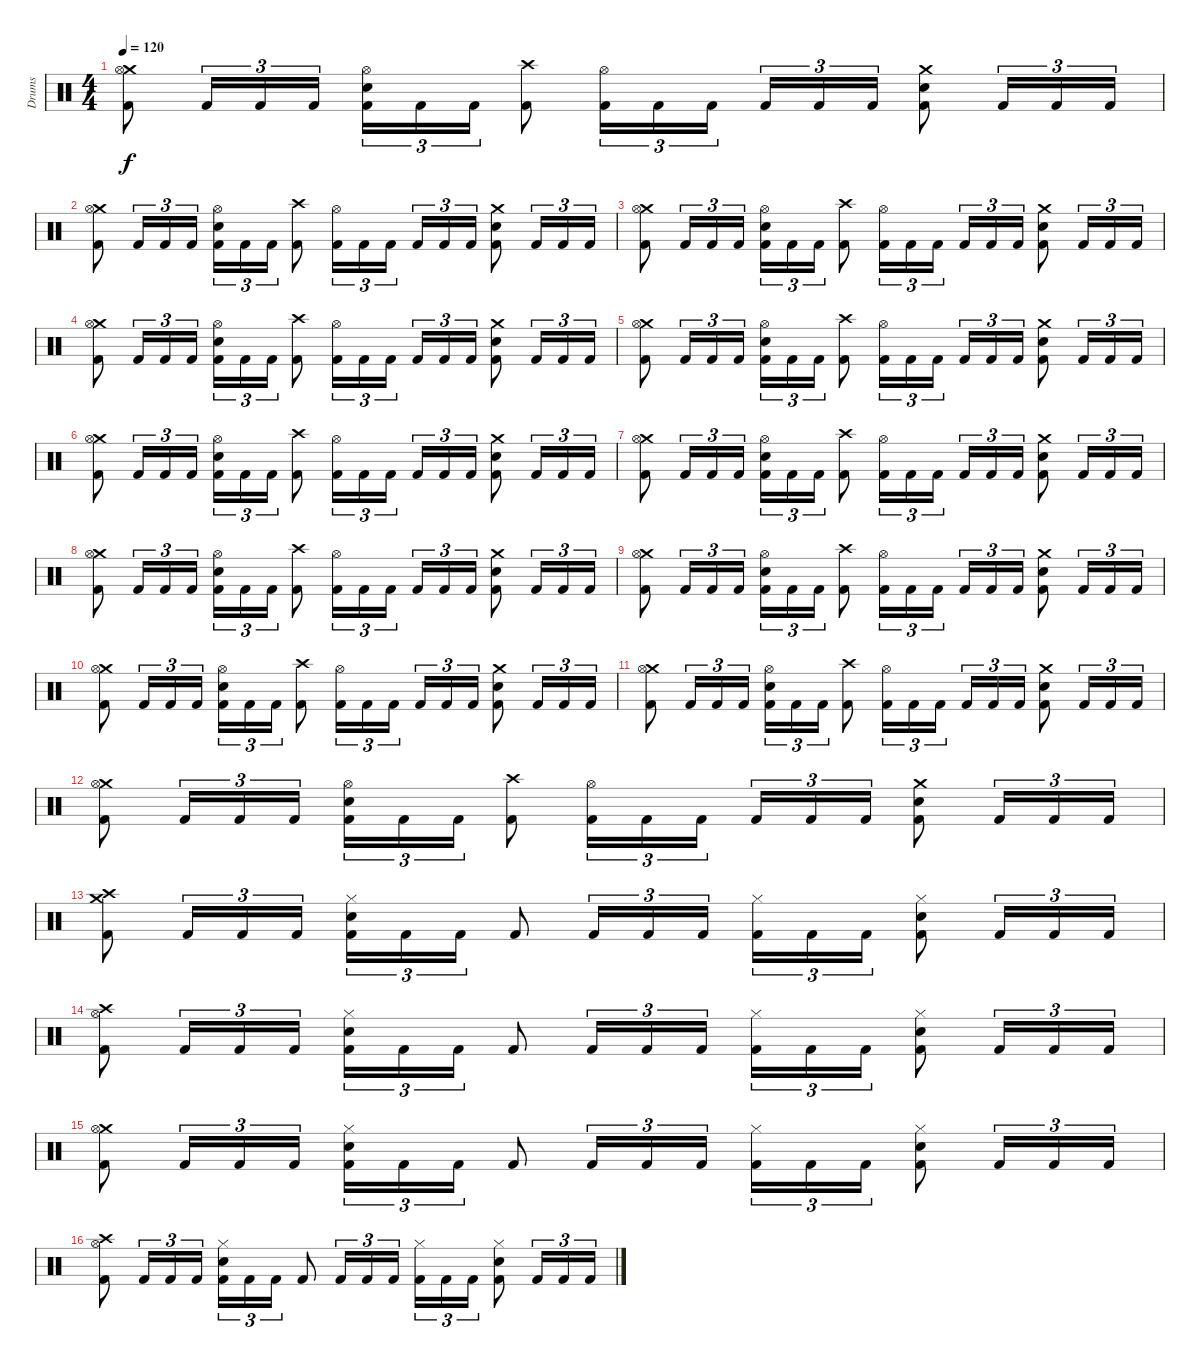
\track ("Drums" "Drums") {instrument percussion}
\staff {score}
\articulation defaults
\ts (4 4)
\tempo 120
\clef neutral
\ks c
("Crash medium (hit)" "Hi-Hat (open)" "Kick (hit) 2").8{dy f} "Kick (hit) 2".16{tu (3 2)} "Kick (hit) 2".16{tu (3 2)} "Kick (hit) 2".16{tu (3 2)} ("Hi-Hat (open)" "Electric Snare (hit)" "Kick (hit) 2").16{tu (3 2)} "Kick (hit) 2".16{tu (3 2)} "Kick (hit) 2".16{tu (3 2)} ("Crash high (hit)" "Kick (hit) 2").8 ("Hi-Hat (open)" "Kick (hit) 2").16{tu (3 2)} "Kick (hit) 2".16{tu (3 2)} "Kick (hit) 2".16{tu (3 2)} "Kick (hit) 2".16{tu (3 2)} "Kick (hit) 2".16{tu (3 2)} "Kick (hit) 2".16{tu (3 2)} ("Crash medium (hit)" "Electric Snare (hit)" "Kick (hit) 2").8 "Kick (hit) 2".16{tu (3 2)} "Kick (hit) 2".16{tu (3 2)} "Kick (hit) 2".16{tu (3 2)} |
("Crash medium (hit)" "Hi-Hat (open)" "Kick (hit) 2").8 "Kick (hit) 2".16{tu (3 2)} "Kick (hit) 2".16{tu (3 2)} "Kick (hit) 2".16{tu (3 2)} ("Hi-Hat (open)" "Electric Snare (hit)" "Kick (hit) 2").16{tu (3 2)} "Kick (hit) 2".16{tu (3 2)} "Kick (hit) 2".16{tu (3 2)} ("Crash high (hit)" "Kick (hit) 2").8 ("Hi-Hat (open)" "Kick (hit) 2").16{tu (3 2)} "Kick (hit) 2".16{tu (3 2)} "Kick (hit) 2".16{tu (3 2)} "Kick (hit) 2".16{tu (3 2)} "Kick (hit) 2".16{tu (3 2)} "Kick (hit) 2".16{tu (3 2)} ("Crash medium (hit)" "Electric Snare (hit)" "Kick (hit) 2").8 "Kick (hit) 2".16{tu (3 2)} "Kick (hit) 2".16{tu (3 2)} "Kick (hit) 2".16{tu (3 2)} |
("Crash medium (hit)" "Hi-Hat (open)" "Kick (hit) 2").8 "Kick (hit) 2".16{tu (3 2)} "Kick (hit) 2".16{tu (3 2)} "Kick (hit) 2".16{tu (3 2)} ("Hi-Hat (open)" "Electric Snare (hit)" "Kick (hit) 2").16{tu (3 2)} "Kick (hit) 2".16{tu (3 2)} "Kick (hit) 2".16{tu (3 2)} ("Crash high (hit)" "Kick (hit) 2").8 ("Hi-Hat (open)" "Kick (hit) 2").16{tu (3 2)} "Kick (hit) 2".16{tu (3 2)} "Kick (hit) 2".16{tu (3 2)} "Kick (hit) 2".16{tu (3 2)} "Kick (hit) 2".16{tu (3 2)} "Kick (hit) 2".16{tu (3 2)} ("Crash medium (hit)" "Electric Snare (hit)" "Kick (hit) 2").8 "Kick (hit) 2".16{tu (3 2)} "Kick (hit) 2".16{tu (3 2)} "Kick (hit) 2".16{tu (3 2)} |
("Crash medium (hit)" "Hi-Hat (open)" "Kick (hit) 2").8 "Kick (hit) 2".16{tu (3 2)} "Kick (hit) 2".16{tu (3 2)} "Kick (hit) 2".16{tu (3 2)} ("Hi-Hat (open)" "Electric Snare (hit)" "Kick (hit) 2").16{tu (3 2)} "Kick (hit) 2".16{tu (3 2)} "Kick (hit) 2".16{tu (3 2)} ("Crash high (hit)" "Kick (hit) 2").8 ("Hi-Hat (open)" "Kick (hit) 2").16{tu (3 2)} "Kick (hit) 2".16{tu (3 2)} "Kick (hit) 2".16{tu (3 2)} "Kick (hit) 2".16{tu (3 2)} "Kick (hit) 2".16{tu (3 2)} "Kick (hit) 2".16{tu (3 2)} ("Crash medium (hit)" "Electric Snare (hit)" "Kick (hit) 2").8 "Kick (hit) 2".16{tu (3 2)} "Kick (hit) 2".16{tu (3 2)} "Kick (hit) 2".16{tu (3 2)} |
("Crash medium (hit)" "Hi-Hat (open)" "Kick (hit) 2").8 "Kick (hit) 2".16{tu (3 2)} "Kick (hit) 2".16{tu (3 2)} "Kick (hit) 2".16{tu (3 2)} ("Hi-Hat (open)" "Electric Snare (hit)" "Kick (hit) 2").16{tu (3 2)} "Kick (hit) 2".16{tu (3 2)} "Kick (hit) 2".16{tu (3 2)} ("Crash high (hit)" "Kick (hit) 2").8 ("Hi-Hat (open)" "Kick (hit) 2").16{tu (3 2)} "Kick (hit) 2".16{tu (3 2)} "Kick (hit) 2".16{tu (3 2)} "Kick (hit) 2".16{tu (3 2)} "Kick (hit) 2".16{tu (3 2)} "Kick (hit) 2".16{tu (3 2)} ("Crash medium (hit)" "Electric Snare (hit)" "Kick (hit) 2").8 "Kick (hit) 2".16{tu (3 2)} "Kick (hit) 2".16{tu (3 2)} "Kick (hit) 2".16{tu (3 2)} |
("Crash medium (hit)" "Hi-Hat (open)" "Kick (hit) 2").8 "Kick (hit) 2".16{tu (3 2)} "Kick (hit) 2".16{tu (3 2)} "Kick (hit) 2".16{tu (3 2)} ("Hi-Hat (open)" "Electric Snare (hit)" "Kick (hit) 2").16{tu (3 2)} "Kick (hit) 2".16{tu (3 2)} "Kick (hit) 2".16{tu (3 2)} ("Crash high (hit)" "Kick (hit) 2").8 ("Hi-Hat (open)" "Kick (hit) 2").16{tu (3 2)} "Kick (hit) 2".16{tu (3 2)} "Kick (hit) 2".16{tu (3 2)} "Kick (hit) 2".16{tu (3 2)} "Kick (hit) 2".16{tu (3 2)} "Kick (hit) 2".16{tu (3 2)} ("Crash medium (hit)" "Electric Snare (hit)" "Kick (hit) 2").8 "Kick (hit) 2".16{tu (3 2)} "Kick (hit) 2".16{tu (3 2)} "Kick (hit) 2".16{tu (3 2)} |
("Crash medium (hit)" "Hi-Hat (open)" "Kick (hit) 2").8 "Kick (hit) 2".16{tu (3 2)} "Kick (hit) 2".16{tu (3 2)} "Kick (hit) 2".16{tu (3 2)} ("Hi-Hat (open)" "Electric Snare (hit)" "Kick (hit) 2").16{tu (3 2)} "Kick (hit) 2".16{tu (3 2)} "Kick (hit) 2".16{tu (3 2)} ("Crash high (hit)" "Kick (hit) 2").8 ("Hi-Hat (open)" "Kick (hit) 2").16{tu (3 2)} "Kick (hit) 2".16{tu (3 2)} "Kick (hit) 2".16{tu (3 2)} "Kick (hit) 2".16{tu (3 2)} "Kick (hit) 2".16{tu (3 2)} "Kick (hit) 2".16{tu (3 2)} ("Crash medium (hit)" "Electric Snare (hit)" "Kick (hit) 2").8 "Kick (hit) 2".16{tu (3 2)} "Kick (hit) 2".16{tu (3 2)} "Kick (hit) 2".16{tu (3 2)} |
("Crash medium (hit)" "Hi-Hat (open)" "Kick (hit) 2").8 "Kick (hit) 2".16{tu (3 2)} "Kick (hit) 2".16{tu (3 2)} "Kick (hit) 2".16{tu (3 2)} ("Hi-Hat (open)" "Electric Snare (hit)" "Kick (hit) 2").16{tu (3 2)} "Kick (hit) 2".16{tu (3 2)} "Kick (hit) 2".16{tu (3 2)} ("Crash high (hit)" "Kick (hit) 2").8 ("Hi-Hat (open)" "Kick (hit) 2").16{tu (3 2)} "Kick (hit) 2".16{tu (3 2)} "Kick (hit) 2".16{tu (3 2)} "Kick (hit) 2".16{tu (3 2)} "Kick (hit) 2".16{tu (3 2)} "Kick (hit) 2".16{tu (3 2)} ("Crash medium (hit)" "Electric Snare (hit)" "Kick (hit) 2").8 "Kick (hit) 2".16{tu (3 2)} "Kick (hit) 2".16{tu (3 2)} "Kick (hit) 2".16{tu (3 2)} |
("Crash medium (hit)" "Hi-Hat (open)" "Kick (hit) 2").8 "Kick (hit) 2".16{tu (3 2)} "Kick (hit) 2".16{tu (3 2)} "Kick (hit) 2".16{tu (3 2)} ("Hi-Hat (open)" "Electric Snare (hit)" "Kick (hit) 2").16{tu (3 2)} "Kick (hit) 2".16{tu (3 2)} "Kick (hit) 2".16{tu (3 2)} ("Crash high (hit)" "Kick (hit) 2").8 ("Hi-Hat (open)" "Kick (hit) 2").16{tu (3 2)} "Kick (hit) 2".16{tu (3 2)} "Kick (hit) 2".16{tu (3 2)} "Kick (hit) 2".16{tu (3 2)} "Kick (hit) 2".16{tu (3 2)} "Kick (hit) 2".16{tu (3 2)} ("Crash medium (hit)" "Electric Snare (hit)" "Kick (hit) 2").8 "Kick (hit) 2".16{tu (3 2)} "Kick (hit) 2".16{tu (3 2)} "Kick (hit) 2".16{tu (3 2)} |
("Crash medium (hit)" "Hi-Hat (open)" "Kick (hit) 2").8 "Kick (hit) 2".16{tu (3 2)} "Kick (hit) 2".16{tu (3 2)} "Kick (hit) 2".16{tu (3 2)} ("Hi-Hat (open)" "Electric Snare (hit)" "Kick (hit) 2").16{tu (3 2)} "Kick (hit) 2".16{tu (3 2)} "Kick (hit) 2".16{tu (3 2)} ("Crash high (hit)" "Kick (hit) 2").8 ("Hi-Hat (open)" "Kick (hit) 2").16{tu (3 2)} "Kick (hit) 2".16{tu (3 2)} "Kick (hit) 2".16{tu (3 2)} "Kick (hit) 2".16{tu (3 2)} "Kick (hit) 2".16{tu (3 2)} "Kick (hit) 2".16{tu (3 2)} ("Crash medium (hit)" "Electric Snare (hit)" "Kick (hit) 2").8 "Kick (hit) 2".16{tu (3 2)} "Kick (hit) 2".16{tu (3 2)} "Kick (hit) 2".16{tu (3 2)} |
("Crash medium (hit)" "Hi-Hat (open)" "Kick (hit) 2").8 "Kick (hit) 2".16{tu (3 2)} "Kick (hit) 2".16{tu (3 2)} "Kick (hit) 2".16{tu (3 2)} ("Hi-Hat (open)" "Electric Snare (hit)" "Kick (hit) 2").16{tu (3 2)} "Kick (hit) 2".16{tu (3 2)} "Kick (hit) 2".16{tu (3 2)} ("Crash high (hit)" "Kick (hit) 2").8 ("Hi-Hat (open)" "Kick (hit) 2").16{tu (3 2)} "Kick (hit) 2".16{tu (3 2)} "Kick (hit) 2".16{tu (3 2)} "Kick (hit) 2".16{tu (3 2)} "Kick (hit) 2".16{tu (3 2)} "Kick (hit) 2".16{tu (3 2)} ("Crash medium (hit)" "Electric Snare (hit)" "Kick (hit) 2").8 "Kick (hit) 2".16{tu (3 2)} "Kick (hit) 2".16{tu (3 2)} "Kick (hit) 2".16{tu (3 2)} |
("Crash medium (hit)" "Hi-Hat (open)" "Kick (hit) 2").8 "Kick (hit) 2".16{tu (3 2)} "Kick (hit) 2".16{tu (3 2)} "Kick (hit) 2".16{tu (3 2)} ("Hi-Hat (open)" "Electric Snare (hit)" "Kick (hit) 2").16{tu (3 2)} "Kick (hit) 2".16{tu (3 2)} "Kick (hit) 2".16{tu (3 2)} ("Crash high (hit)" "Kick (hit) 2").8 ("Hi-Hat (open)" "Kick (hit) 2").16{tu (3 2)} "Kick (hit) 2".16{tu (3 2)} "Kick (hit) 2".16{tu (3 2)} "Kick (hit) 2".16{tu (3 2)} "Kick (hit) 2".16{tu (3 2)} "Kick (hit) 2".16{tu (3 2)} ("Crash medium (hit)" "Electric Snare (hit)" "Kick (hit) 2").8 "Kick (hit) 2".16{tu (3 2)} "Kick (hit) 2".16{tu (3 2)} "Kick (hit) 2".16{tu (3 2)} |
("Crash high (hit)" "Crash medium (hit)" "Kick (hit) 2").8 "Kick (hit) 2".16{tu (3 2)} "Kick (hit) 2".16{tu (3 2)} "Kick (hit) 2".16{tu (3 2)} ("Hi-Hat (closed)" "Electric Snare (hit)" "Kick (hit) 2").16{tu (3 2)} "Kick (hit) 2".16{tu (3 2)} "Kick (hit) 2".16{tu (3 2)} "Kick (hit) 2".8 "Kick (hit) 2".16{tu (3 2)} "Kick (hit) 2".16{tu (3 2)} "Kick (hit) 2".16{tu (3 2)} ("Hi-Hat (closed)" "Kick (hit) 2").16{tu (3 2)} "Kick (hit) 2".16{tu (3 2)} "Kick (hit) 2".16{tu (3 2)} ("Hi-Hat (closed)" "Electric Snare (hit)" "Kick (hit) 2").8 "Kick (hit) 2".16{tu (3 2)} "Kick (hit) 2".16{tu (3 2)} "Kick (hit) 2".16{tu (3 2)} |
("Crash high (hit)" "Hi-Hat (open)" "Kick (hit) 2").8 "Kick (hit) 2".16{tu (3 2)} "Kick (hit) 2".16{tu (3 2)} "Kick (hit) 2".16{tu (3 2)} ("Hi-Hat (closed)" "Electric Snare (hit)" "Kick (hit) 2").16{tu (3 2)} "Kick (hit) 2".16{tu (3 2)} "Kick (hit) 2".16{tu (3 2)} "Kick (hit) 2".8 "Kick (hit) 2".16{tu (3 2)} "Kick (hit) 2".16{tu (3 2)} "Kick (hit) 2".16{tu (3 2)} ("Hi-Hat (closed)" "Kick (hit) 2").16{tu (3 2)} "Kick (hit) 2".16{tu (3 2)} "Kick (hit) 2".16{tu (3 2)} ("Hi-Hat (closed)" "Electric Snare (hit)" "Kick (hit) 2").8 "Kick (hit) 2".16{tu (3 2)} "Kick (hit) 2".16{tu (3 2)} "Kick (hit) 2".16{tu (3 2)} |
("Crash medium (hit)" "Hi-Hat (open)" "Kick (hit) 2").8 "Kick (hit) 2".16{tu (3 2)} "Kick (hit) 2".16{tu (3 2)} "Kick (hit) 2".16{tu (3 2)} ("Hi-Hat (closed)" "Electric Snare (hit)" "Kick (hit) 2").16{tu (3 2)} "Kick (hit) 2".16{tu (3 2)} "Kick (hit) 2".16{tu (3 2)} "Kick (hit) 2".8 "Kick (hit) 2".16{tu (3 2)} "Kick (hit) 2".16{tu (3 2)} "Kick (hit) 2".16{tu (3 2)} ("Hi-Hat (closed)" "Kick (hit) 2").16{tu (3 2)} "Kick (hit) 2".16{tu (3 2)} "Kick (hit) 2".16{tu (3 2)} ("Hi-Hat (closed)" "Electric Snare (hit)" "Kick (hit) 2").8 "Kick (hit) 2".16{tu (3 2)} "Kick (hit) 2".16{tu (3 2)} "Kick (hit) 2".16{tu (3 2)} |
("Crash high (hit)" "Hi-Hat (open)" "Kick (hit) 2").8 "Kick (hit) 2".16{tu (3 2)} "Kick (hit) 2".16{tu (3 2)} "Kick (hit) 2".16{tu (3 2)} ("Hi-Hat (closed)" "Electric Snare (hit)" "Kick (hit) 2").16{tu (3 2)} "Kick (hit) 2".16{tu (3 2)} "Kick (hit) 2".16{tu (3 2)} "Kick (hit) 2".8 "Kick (hit) 2".16{tu (3 2)} "Kick (hit) 2".16{tu (3 2)} "Kick (hit) 2".16{tu (3 2)} ("Hi-Hat (closed)" "Kick (hit) 2").16{tu (3 2)} "Kick (hit) 2".16{tu (3 2)} "Kick (hit) 2".16{tu (3 2)} ("Hi-Hat (closed)" "Electric Snare (hit)" "Kick (hit) 2").8 "Kick (hit) 2".16{tu (3 2)} "Kick (hit) 2".16{tu (3 2)} "Kick (hit) 2".16{tu (3 2)}
